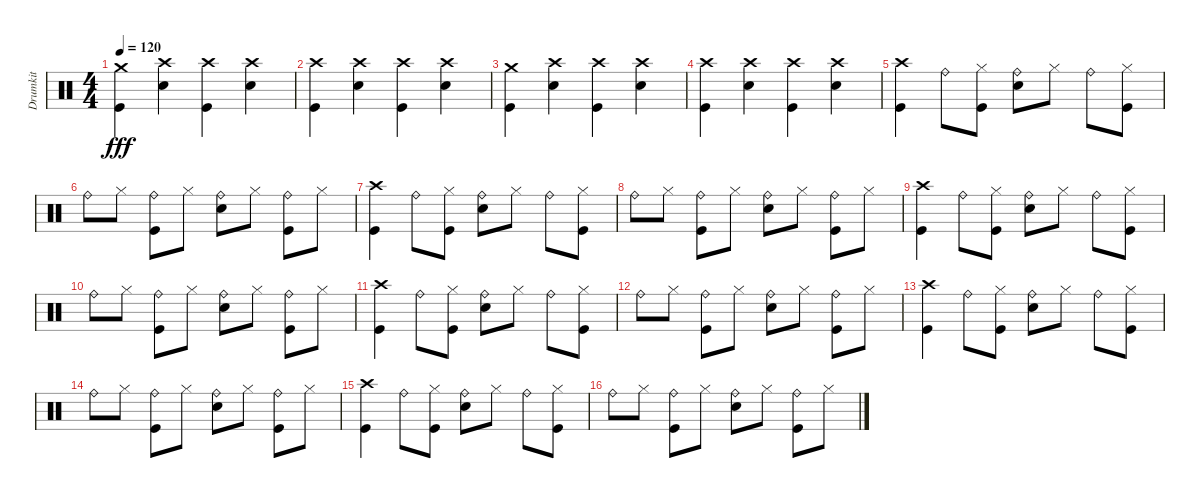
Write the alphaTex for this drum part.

\track ("Drumkit" "Drumkit") {instrument percussion}
\staff {score}
\articulation defaults
\ts (4 4)
\tempo 120
\clef neutral
\ks c
("Kick (hit)" "Crash medium (hit)").4{dy fff} ("Snare (hit) 2" "Crash high (hit)").4 ("Kick (hit)" "Crash high (hit)").4 ("Snare (hit) 2" "Crash high (hit)").4 |
("Kick (hit)" "Crash high (hit)").4 ("Snare (hit) 2" "Crash high (hit)").4 ("Kick (hit)" "Crash high (hit)").4 ("Snare (hit) 2" "Crash high (hit)").4 |
("Kick (hit)" "Crash medium (hit)").4 ("Snare (hit) 2" "Crash high (hit)").4 ("Kick (hit)" "Crash high (hit)").4 ("Snare (hit) 2" "Crash high (hit)").4 |
("Kick (hit)" "Crash high (hit)").4 ("Snare (hit) 2" "Crash high (hit)").4 ("Kick (hit)" "Crash high (hit)").4 ("Snare (hit) 2" "Crash high (hit)").4 |
("Kick (hit)" "Crash high (hit)").4 "Ride (bell)".8 ("Kick (hit)" "Hi-Hat (closed)").8 ("Snare (hit) 2" "Ride (bell)").8 "Hi-Hat (closed)".8 "Ride (bell)".8 ("Hi-Hat (closed)" "Kick (hit)").8 |
"Ride (bell)".8 "Hi-Hat (closed)".8 ("Ride (bell)" "Kick (hit)").8 "Hi-Hat (closed)".8 ("Ride (bell)" "Snare (hit) 2").8 "Hi-Hat (closed)".8 ("Ride (bell)" "Kick (hit)").8 "Hi-Hat (closed)".8 |
("Kick (hit)" "Crash high (hit)").4 "Ride (bell)".8 ("Kick (hit)" "Hi-Hat (closed)").8 ("Snare (hit) 2" "Ride (bell)").8 "Hi-Hat (closed)".8 "Ride (bell)".8 ("Hi-Hat (closed)" "Kick (hit)").8 |
"Ride (bell)".8 "Hi-Hat (closed)".8 ("Ride (bell)" "Kick (hit)").8 "Hi-Hat (closed)".8 ("Ride (bell)" "Snare (hit) 2").8 "Hi-Hat (closed)".8 ("Ride (bell)" "Kick (hit)").8 "Hi-Hat (closed)".8 |
("Kick (hit)" "Crash high (hit)").4 "Ride (bell)".8 ("Kick (hit)" "Hi-Hat (closed)").8 ("Snare (hit) 2" "Ride (bell)").8 "Hi-Hat (closed)".8 "Ride (bell)".8 ("Hi-Hat (closed)" "Kick (hit)").8 |
"Ride (bell)".8 "Hi-Hat (closed)".8 ("Ride (bell)" "Kick (hit)").8 "Hi-Hat (closed)".8 ("Ride (bell)" "Snare (hit) 2").8 "Hi-Hat (closed)".8 ("Ride (bell)" "Kick (hit)").8 "Hi-Hat (closed)".8 |
("Kick (hit)" "Crash high (hit)").4 "Ride (bell)".8 ("Kick (hit)" "Hi-Hat (closed)").8 ("Snare (hit) 2" "Ride (bell)").8 "Hi-Hat (closed)".8 "Ride (bell)".8 ("Hi-Hat (closed)" "Kick (hit)").8 |
"Ride (bell)".8 "Hi-Hat (closed)".8 ("Ride (bell)" "Kick (hit)").8 "Hi-Hat (closed)".8 ("Ride (bell)" "Snare (hit) 2").8 "Hi-Hat (closed)".8 ("Ride (bell)" "Kick (hit)").8 "Hi-Hat (closed)".8 |
("Kick (hit)" "Crash high (hit)").4 "Ride (bell)".8 ("Kick (hit)" "Hi-Hat (closed)").8 ("Snare (hit) 2" "Ride (bell)").8 "Hi-Hat (closed)".8 "Ride (bell)".8 ("Hi-Hat (closed)" "Kick (hit)").8 |
"Ride (bell)".8 "Hi-Hat (closed)".8 ("Ride (bell)" "Kick (hit)").8 "Hi-Hat (closed)".8 ("Ride (bell)" "Snare (hit) 2").8 "Hi-Hat (closed)".8 ("Ride (bell)" "Kick (hit)").8 "Hi-Hat (closed)".8 |
("Kick (hit)" "Crash high (hit)").4 "Ride (bell)".8 ("Kick (hit)" "Hi-Hat (closed)").8 ("Snare (hit) 2" "Ride (bell)").8 "Hi-Hat (closed)".8 "Ride (bell)".8 ("Hi-Hat (closed)" "Kick (hit)").8 |
"Ride (bell)".8 "Hi-Hat (closed)".8 ("Ride (bell)" "Kick (hit)").8 "Hi-Hat (closed)".8 ("Ride (bell)" "Snare (hit) 2").8 "Hi-Hat (closed)".8 ("Ride (bell)" "Kick (hit)").8 "Hi-Hat (closed)".8
